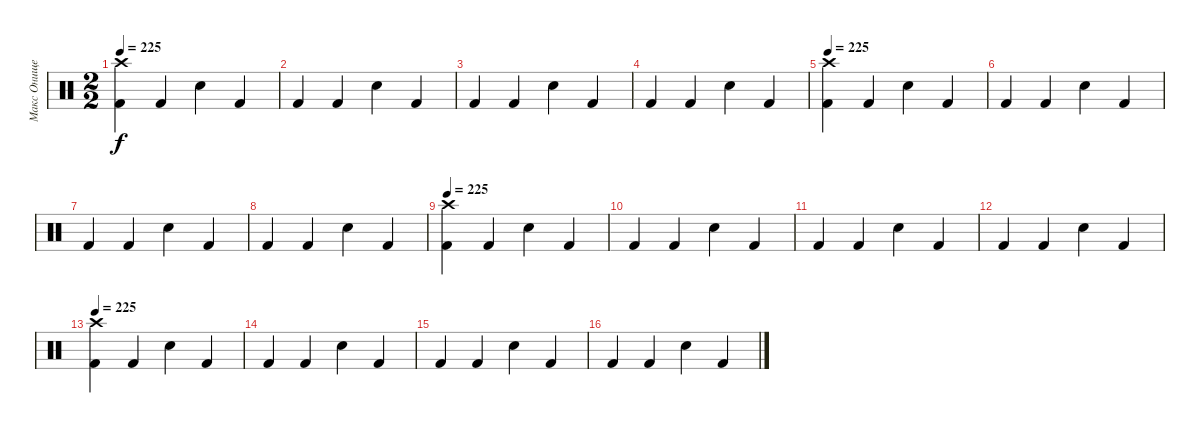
\track ("Макс Онищенко" "Макс Онище") {instrument percussion}
\staff {score}
\articulation defaults
\ts (2 2)
\tempo 225
\clef neutral
\ks c
("Kick (hit) 2" "Crash high (hit)").4{dy f} "Kick (hit) 2".4 "Snare (hit) 2".4 "Kick (hit) 2".4 |
"Kick (hit) 2".4 "Kick (hit) 2".4 "Snare (hit) 2".4 "Kick (hit) 2".4 |
"Kick (hit) 2".4 "Kick (hit) 2".4 "Snare (hit) 2".4 "Kick (hit) 2".4 |
"Kick (hit) 2".4 "Kick (hit) 2".4 "Snare (hit) 2".4 "Kick (hit) 2".4 |
\tempo 225
("Kick (hit) 2" "Crash high (hit)").4 "Kick (hit) 2".4 "Snare (hit) 2".4 "Kick (hit) 2".4 |
"Kick (hit) 2".4 "Kick (hit) 2".4 "Snare (hit) 2".4 "Kick (hit) 2".4 |
"Kick (hit) 2".4 "Kick (hit) 2".4 "Snare (hit) 2".4 "Kick (hit) 2".4 |
"Kick (hit) 2".4 "Kick (hit) 2".4 "Snare (hit) 2".4 "Kick (hit) 2".4 |
\tempo 225
("Kick (hit) 2" "Crash high (hit)").4 "Kick (hit) 2".4 "Snare (hit) 2".4 "Kick (hit) 2".4 |
"Kick (hit) 2".4 "Kick (hit) 2".4 "Snare (hit) 2".4 "Kick (hit) 2".4 |
"Kick (hit) 2".4 "Kick (hit) 2".4 "Snare (hit) 2".4 "Kick (hit) 2".4 |
"Kick (hit) 2".4 "Kick (hit) 2".4 "Snare (hit) 2".4 "Kick (hit) 2".4 |
\tempo 225
("Kick (hit) 2" "Crash high (hit)").4 "Kick (hit) 2".4 "Snare (hit) 2".4 "Kick (hit) 2".4 |
"Kick (hit) 2".4 "Kick (hit) 2".4 "Snare (hit) 2".4 "Kick (hit) 2".4 |
"Kick (hit) 2".4 "Kick (hit) 2".4 "Snare (hit) 2".4 "Kick (hit) 2".4 |
"Kick (hit) 2".4 "Kick (hit) 2".4 "Snare (hit) 2".4 "Kick (hit) 2".4
